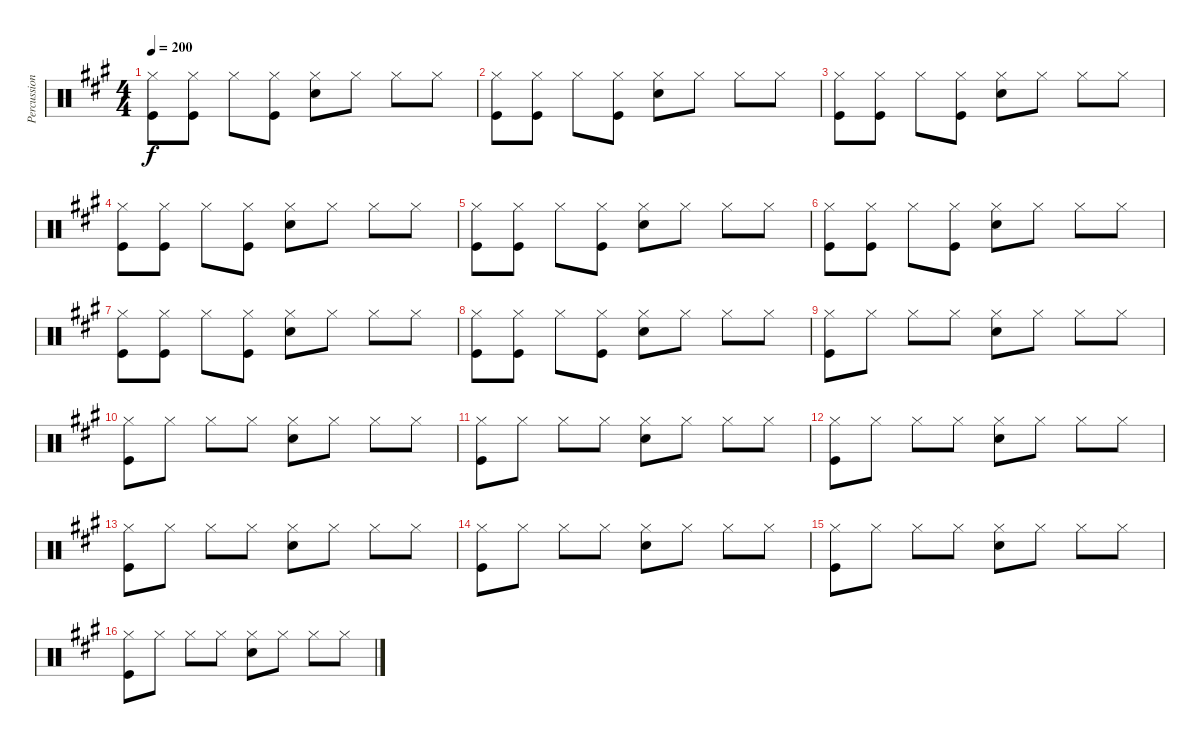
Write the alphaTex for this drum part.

\track ("Percussion" "Percussion") {instrument percussion}
\staff {score}
\articulation defaults
\ts (4 4)
\tempo 200
\clef neutral
\ks a
("Hi-Hat (closed)" "Kick (hit)").8{dy f} ("Hi-Hat (closed)" "Kick (hit)").8 "Hi-Hat (closed)".8 ("Hi-Hat (closed)" "Kick (hit)").8 ("Hi-Hat (closed)" "Snare (hit) 2").8 "Hi-Hat (closed)".8 "Hi-Hat (closed)".8 "Hi-Hat (closed)".8 |
("Hi-Hat (closed)" "Kick (hit)").8 ("Hi-Hat (closed)" "Kick (hit)").8 "Hi-Hat (closed)".8 ("Hi-Hat (closed)" "Kick (hit)").8 ("Hi-Hat (closed)" "Snare (hit) 2").8 "Hi-Hat (closed)".8 "Hi-Hat (closed)".8 "Hi-Hat (closed)".8 |
("Hi-Hat (closed)" "Kick (hit)").8 ("Hi-Hat (closed)" "Kick (hit)").8 "Hi-Hat (closed)".8 ("Hi-Hat (closed)" "Kick (hit)").8 ("Hi-Hat (closed)" "Snare (hit) 2").8 "Hi-Hat (closed)".8 "Hi-Hat (closed)".8 "Hi-Hat (closed)".8 |
("Hi-Hat (closed)" "Kick (hit)").8 ("Hi-Hat (closed)" "Kick (hit)").8 "Hi-Hat (closed)".8 ("Hi-Hat (closed)" "Kick (hit)").8 ("Hi-Hat (closed)" "Snare (hit) 2").8 "Hi-Hat (closed)".8 "Hi-Hat (closed)".8 "Hi-Hat (closed)".8 |
("Hi-Hat (closed)" "Kick (hit)").8 ("Hi-Hat (closed)" "Kick (hit)").8 "Hi-Hat (closed)".8 ("Hi-Hat (closed)" "Kick (hit)").8 ("Hi-Hat (closed)" "Snare (hit) 2").8 "Hi-Hat (closed)".8 "Hi-Hat (closed)".8 "Hi-Hat (closed)".8 |
("Hi-Hat (closed)" "Kick (hit)").8 ("Hi-Hat (closed)" "Kick (hit)").8 "Hi-Hat (closed)".8 ("Hi-Hat (closed)" "Kick (hit)").8 ("Hi-Hat (closed)" "Snare (hit) 2").8 "Hi-Hat (closed)".8 "Hi-Hat (closed)".8 "Hi-Hat (closed)".8 |
("Hi-Hat (closed)" "Kick (hit)").8 ("Hi-Hat (closed)" "Kick (hit)").8 "Hi-Hat (closed)".8 ("Hi-Hat (closed)" "Kick (hit)").8 ("Hi-Hat (closed)" "Snare (hit) 2").8 "Hi-Hat (closed)".8 "Hi-Hat (closed)".8 "Hi-Hat (closed)".8 |
("Hi-Hat (closed)" "Kick (hit)").8 ("Hi-Hat (closed)" "Kick (hit)").8 "Hi-Hat (closed)".8 ("Hi-Hat (closed)" "Kick (hit)").8 ("Hi-Hat (closed)" "Snare (hit) 2").8 "Hi-Hat (closed)".8 "Hi-Hat (closed)".8 "Hi-Hat (closed)".8 |
("Hi-Hat (closed)" "Kick (hit)").8 "Hi-Hat (closed)".8 "Hi-Hat (closed)".8 "Hi-Hat (closed)".8 ("Hi-Hat (closed)" "Snare (hit) 2").8 "Hi-Hat (closed)".8 "Hi-Hat (closed)".8 "Hi-Hat (closed)".8 |
("Hi-Hat (closed)" "Kick (hit)").8 "Hi-Hat (closed)".8 "Hi-Hat (closed)".8 "Hi-Hat (closed)".8 ("Hi-Hat (closed)" "Snare (hit) 2").8 "Hi-Hat (closed)".8 "Hi-Hat (closed)".8 "Hi-Hat (closed)".8 |
("Hi-Hat (closed)" "Kick (hit)").8 "Hi-Hat (closed)".8 "Hi-Hat (closed)".8 "Hi-Hat (closed)".8 ("Hi-Hat (closed)" "Snare (hit) 2").8 "Hi-Hat (closed)".8 "Hi-Hat (closed)".8 "Hi-Hat (closed)".8 |
("Hi-Hat (closed)" "Kick (hit)").8 "Hi-Hat (closed)".8 "Hi-Hat (closed)".8 "Hi-Hat (closed)".8 ("Hi-Hat (closed)" "Snare (hit) 2").8 "Hi-Hat (closed)".8 "Hi-Hat (closed)".8 "Hi-Hat (closed)".8 |
("Hi-Hat (closed)" "Kick (hit)").8 "Hi-Hat (closed)".8 "Hi-Hat (closed)".8 "Hi-Hat (closed)".8 ("Hi-Hat (closed)" "Snare (hit) 2").8 "Hi-Hat (closed)".8 "Hi-Hat (closed)".8 "Hi-Hat (closed)".8 |
("Hi-Hat (closed)" "Kick (hit)").8 "Hi-Hat (closed)".8 "Hi-Hat (closed)".8 "Hi-Hat (closed)".8 ("Hi-Hat (closed)" "Snare (hit) 2").8 "Hi-Hat (closed)".8 "Hi-Hat (closed)".8 "Hi-Hat (closed)".8 |
("Hi-Hat (closed)" "Kick (hit)").8 "Hi-Hat (closed)".8 "Hi-Hat (closed)".8 "Hi-Hat (closed)".8 ("Hi-Hat (closed)" "Snare (hit) 2").8 "Hi-Hat (closed)".8 "Hi-Hat (closed)".8 "Hi-Hat (closed)".8 |
("Hi-Hat (closed)" "Kick (hit)").8 "Hi-Hat (closed)".8 "Hi-Hat (closed)".8 "Hi-Hat (closed)".8 ("Hi-Hat (closed)" "Snare (hit) 2").8 "Hi-Hat (closed)".8 "Hi-Hat (closed)".8 "Hi-Hat (closed)".8
